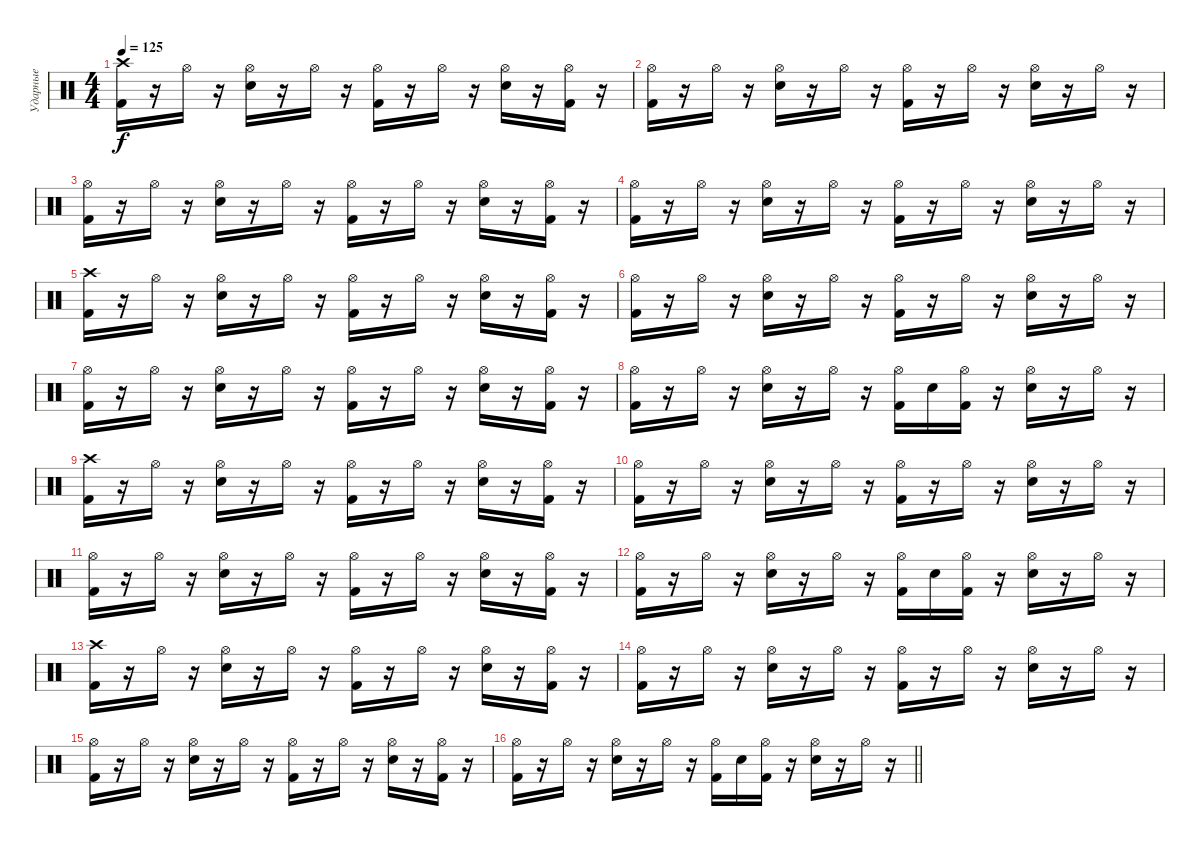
\track ("Ударные" "Ударные") {instrument percussion}
\staff {score}
\articulation defaults
\ts (4 4)
\tempo 125
\clef neutral
\ks c
("Crash high (hit)" "Kick (hit) 2").16{dy f} r.16 "Hi-Hat (open)".16 r.16 ("Hi-Hat (open)" "Electric Snare (hit)").16 r.16 "Hi-Hat (open)".16 r.16 ("Hi-Hat (open)" "Kick (hit) 2").16 r.16 "Hi-Hat (open)".16 r.16 ("Hi-Hat (open)" "Electric Snare (hit)").16 r.16 ("Hi-Hat (open)" "Kick (hit) 2").16 r.16 |
("Hi-Hat (open)" "Kick (hit) 2").16 r.16 "Hi-Hat (open)".16 r.16 ("Hi-Hat (open)" "Electric Snare (hit)").16 r.16 "Hi-Hat (open)".16 r.16 ("Hi-Hat (open)" "Kick (hit) 2").16 r.16 "Hi-Hat (open)".16 r.16 ("Hi-Hat (open)" "Electric Snare (hit)").16 r.16 "Hi-Hat (open)".16 r.16 |
("Hi-Hat (open)" "Kick (hit) 2").16 r.16 "Hi-Hat (open)".16 r.16 ("Hi-Hat (open)" "Electric Snare (hit)").16 r.16 "Hi-Hat (open)".16 r.16 ("Hi-Hat (open)" "Kick (hit) 2").16 r.16 "Hi-Hat (open)".16 r.16 ("Hi-Hat (open)" "Electric Snare (hit)").16 r.16 ("Hi-Hat (open)" "Kick (hit) 2").16 r.16 |
("Hi-Hat (open)" "Kick (hit) 2").16 r.16 "Hi-Hat (open)".16 r.16 ("Hi-Hat (open)" "Electric Snare (hit)").16 r.16 "Hi-Hat (open)".16 r.16 ("Hi-Hat (open)" "Kick (hit) 2").16 r.16 "Hi-Hat (open)".16 r.16 ("Hi-Hat (open)" "Electric Snare (hit)").16 r.16 "Hi-Hat (open)".16 r.16 |
("Crash high (hit)" "Kick (hit) 2").16 r.16 "Hi-Hat (open)".16 r.16 ("Hi-Hat (open)" "Electric Snare (hit)").16 r.16 "Hi-Hat (open)".16 r.16 ("Hi-Hat (open)" "Kick (hit) 2").16 r.16 "Hi-Hat (open)".16 r.16 ("Hi-Hat (open)" "Electric Snare (hit)").16 r.16 ("Hi-Hat (open)" "Kick (hit) 2").16 r.16 |
("Hi-Hat (open)" "Kick (hit) 2").16 r.16 "Hi-Hat (open)".16 r.16 ("Hi-Hat (open)" "Electric Snare (hit)").16 r.16 "Hi-Hat (open)".16 r.16 ("Hi-Hat (open)" "Kick (hit) 2").16 r.16 "Hi-Hat (open)".16 r.16 ("Hi-Hat (open)" "Electric Snare (hit)").16 r.16 "Hi-Hat (open)".16 r.16 |
("Hi-Hat (open)" "Kick (hit) 2").16 r.16 "Hi-Hat (open)".16 r.16 ("Hi-Hat (open)" "Electric Snare (hit)").16 r.16 "Hi-Hat (open)".16 r.16 ("Hi-Hat (open)" "Kick (hit) 2").16 r.16 "Hi-Hat (open)".16 r.16 ("Hi-Hat (open)" "Electric Snare (hit)").16 r.16 ("Hi-Hat (open)" "Kick (hit) 2").16 r.16 |
("Hi-Hat (open)" "Kick (hit) 2").16 r.16 "Hi-Hat (open)".16 r.16 ("Hi-Hat (open)" "Electric Snare (hit)").16 r.16 "Hi-Hat (open)".16 r.16 ("Hi-Hat (open)" "Kick (hit) 2").16 "Electric Snare (hit)".16 ("Hi-Hat (open)" "Kick (hit) 2").16 r.16 ("Hi-Hat (open)" "Electric Snare (hit)").16 r.16 "Hi-Hat (open)".16 r.16 |
("Crash high (hit)" "Kick (hit) 2").16 r.16 "Hi-Hat (open)".16 r.16 ("Hi-Hat (open)" "Electric Snare (hit)").16 r.16 "Hi-Hat (open)".16 r.16 ("Hi-Hat (open)" "Kick (hit) 2").16 r.16 "Hi-Hat (open)".16 r.16 ("Hi-Hat (open)" "Electric Snare (hit)").16 r.16 ("Hi-Hat (open)" "Kick (hit) 2").16 r.16 |
("Hi-Hat (open)" "Kick (hit) 2").16 r.16 "Hi-Hat (open)".16 r.16 ("Hi-Hat (open)" "Electric Snare (hit)").16 r.16 "Hi-Hat (open)".16 r.16 ("Hi-Hat (open)" "Kick (hit) 2").16 r.16 "Hi-Hat (open)".16 r.16 ("Hi-Hat (open)" "Electric Snare (hit)").16 r.16 "Hi-Hat (open)".16 r.16 |
("Hi-Hat (open)" "Kick (hit) 2").16 r.16 "Hi-Hat (open)".16 r.16 ("Hi-Hat (open)" "Electric Snare (hit)").16 r.16 "Hi-Hat (open)".16 r.16 ("Hi-Hat (open)" "Kick (hit) 2").16 r.16 "Hi-Hat (open)".16 r.16 ("Hi-Hat (open)" "Electric Snare (hit)").16 r.16 ("Hi-Hat (open)" "Kick (hit) 2").16 r.16 |
("Hi-Hat (open)" "Kick (hit) 2").16 r.16 "Hi-Hat (open)".16 r.16 ("Hi-Hat (open)" "Electric Snare (hit)").16 r.16 "Hi-Hat (open)".16 r.16 ("Hi-Hat (open)" "Kick (hit) 2").16 "Electric Snare (hit)".16 ("Hi-Hat (open)" "Kick (hit) 2").16 r.16 ("Hi-Hat (open)" "Electric Snare (hit)").16 r.16 "Hi-Hat (open)".16 r.16 |
("Crash high (hit)" "Kick (hit) 2").16 r.16 "Hi-Hat (open)".16 r.16 ("Hi-Hat (open)" "Electric Snare (hit)").16 r.16 "Hi-Hat (open)".16 r.16 ("Hi-Hat (open)" "Kick (hit) 2").16 r.16 "Hi-Hat (open)".16 r.16 ("Hi-Hat (open)" "Electric Snare (hit)").16 r.16 ("Hi-Hat (open)" "Kick (hit) 2").16 r.16 |
("Hi-Hat (open)" "Kick (hit) 2").16 r.16 "Hi-Hat (open)".16 r.16 ("Hi-Hat (open)" "Electric Snare (hit)").16 r.16 "Hi-Hat (open)".16 r.16 ("Hi-Hat (open)" "Kick (hit) 2").16 r.16 "Hi-Hat (open)".16 r.16 ("Hi-Hat (open)" "Electric Snare (hit)").16 r.16 "Hi-Hat (open)".16 r.16 |
("Hi-Hat (open)" "Kick (hit) 2").16 r.16 "Hi-Hat (open)".16 r.16 ("Hi-Hat (open)" "Electric Snare (hit)").16 r.16 "Hi-Hat (open)".16 r.16 ("Hi-Hat (open)" "Kick (hit) 2").16 r.16 "Hi-Hat (open)".16 r.16 ("Hi-Hat (open)" "Electric Snare (hit)").16 r.16 ("Hi-Hat (open)" "Kick (hit) 2").16 r.16 |
\barLineRight lightlight
("Hi-Hat (open)" "Kick (hit) 2").16 r.16 "Hi-Hat (open)".16 r.16 ("Hi-Hat (open)" "Electric Snare (hit)").16 r.16 "Hi-Hat (open)".16 r.16 ("Hi-Hat (open)" "Kick (hit) 2").16 "Electric Snare (hit)".16 ("Hi-Hat (open)" "Kick (hit) 2").16 r.16 ("Hi-Hat (open)" "Electric Snare (hit)").16 r.16 "Hi-Hat (open)".16 r.16
